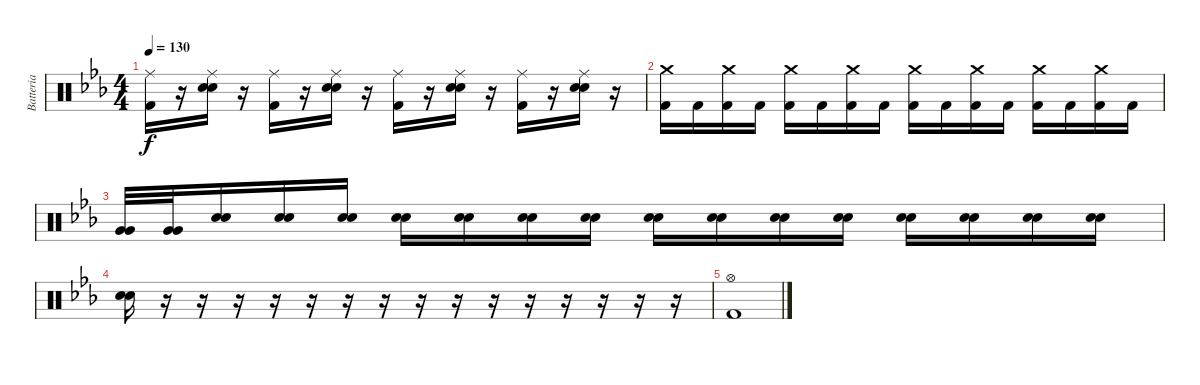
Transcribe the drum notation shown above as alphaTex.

\track ("Batteria" "Batteria") {instrument percussion}
\staff {score}
\articulation defaults
\ts (4 4)
\tempo 130
\clef neutral
\ks eb
("Kick (hit) 2" "Ride (middle)").16{dy f} r.16 ("Snare (hit) 2" "Snare (hit) 2" "Ride (middle)").16 r.16 ("Kick (hit) 2" "Ride (middle)").16 r.16 ("Snare (hit) 2" "Snare (hit) 2" "Ride (middle)").16 r.16 ("Kick (hit) 2" "Ride (middle)").16 r.16 ("Snare (hit) 2" "Snare (hit) 2" "Ride (middle)").16 r.16 ("Kick (hit) 2" "Ride (middle)").16 r.16 ("Snare (hit) 2" "Snare (hit) 2" "Ride (middle)").16 r.16 |
("Kick (hit) 2" "Crash medium (hit)").16 "Kick (hit) 2".16 ("Kick (hit) 2" "Crash medium (hit)").16 "Kick (hit) 2".16 ("Kick (hit) 2" "Crash medium (hit)").16 "Kick (hit) 2".16 ("Kick (hit) 2" "Crash medium (hit)").16 "Kick (hit) 2".16 ("Kick (hit) 2" "Crash medium (hit)").16 "Kick (hit) 2".16 ("Kick (hit) 2" "Crash medium (hit)").16 "Kick (hit) 2".16 ("Kick (hit) 2" "Crash medium (hit)").16 "Kick (hit) 2".16 ("Kick (hit) 2" "Crash medium (hit)").16 "Kick (hit) 2".16 |
("Very Low Tom (hit)" "Very Low Tom (hit)").32 ("Very Low Tom (hit)" "Very Low Tom (hit)").32 ("Snare (hit) 2" "Snare (hit) 2").16 ("Snare (hit) 2" "Snare (hit) 2").16 ("Snare (hit) 2" "Snare (hit) 2").16 ("Snare (hit) 2" "Snare (hit) 2").16 ("Snare (hit) 2" "Snare (hit) 2").16 ("Snare (hit) 2" "Snare (hit) 2").16 ("Snare (hit) 2" "Snare (hit) 2").16 ("Snare (hit) 2" "Snare (hit) 2").16 ("Snare (hit) 2" "Snare (hit) 2").16 ("Snare (hit) 2" "Snare (hit) 2").16 ("Snare (hit) 2" "Snare (hit) 2").16 ("Snare (hit) 2" "Snare (hit) 2").16 ("Snare (hit) 2" "Snare (hit) 2").16 ("Snare (hit) 2" "Snare (hit) 2").16 ("Snare (hit) 2" "Snare (hit) 2").16 |
("Snare (hit) 2" "Snare (hit) 2").16 r.16 r.16 r.16 r.16 r.16 r.16 r.16 r.16 r.16 r.16 r.16 r.16 r.16 r.16 r.16 |
("Kick (hit) 2" "Hi-Hat (open)").1
